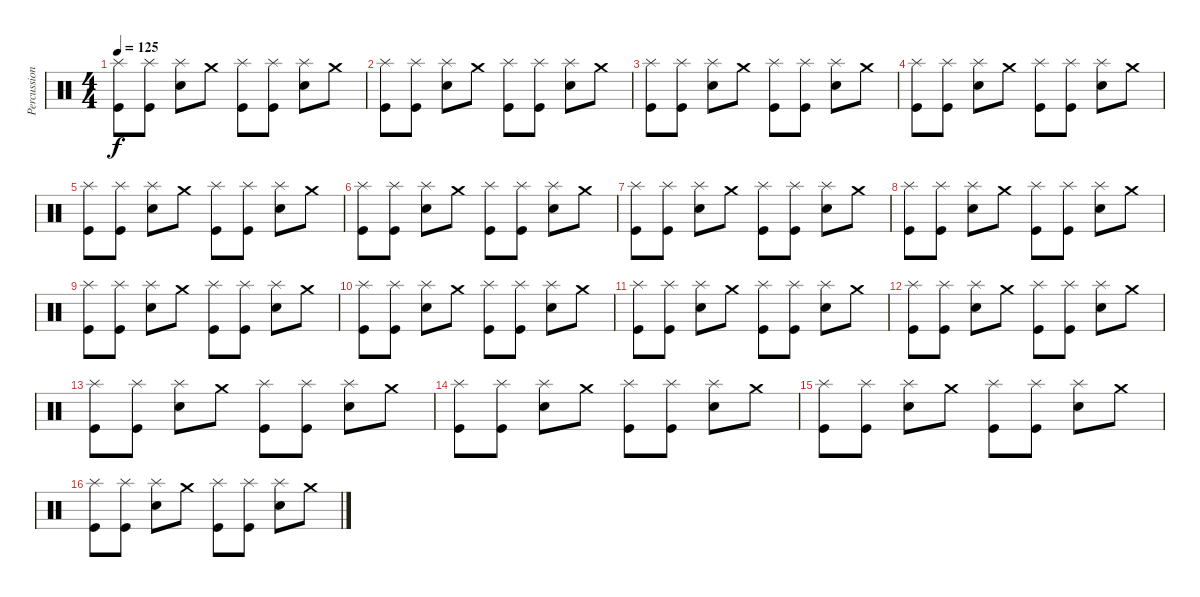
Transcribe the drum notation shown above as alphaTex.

\track ("Percussions" "Percussion") {instrument percussion}
\staff {score}
\articulation defaults
\ts (4 4)
\tempo 125
\clef neutral
\ks c
("Kick (hit)" "Splash (hit)").8{dy f} ("Kick (hit)" "Splash (hit)").8 ("Electric Snare (hit)" "Splash (hit)").8 "Crash medium (hit)".8 ("Kick (hit)" "Splash (hit)").8 ("Kick (hit)" "Splash (hit)").8 ("Electric Snare (hit)" "Splash (hit)").8 "Crash medium (hit)".8 |
("Kick (hit)" "Splash (hit)").8 ("Kick (hit)" "Splash (hit)").8 ("Electric Snare (hit)" "Splash (hit)").8 "Crash medium (hit)".8 ("Kick (hit)" "Splash (hit)").8 ("Kick (hit)" "Splash (hit)").8 ("Electric Snare (hit)" "Splash (hit)").8 "Crash medium (hit)".8 |
("Kick (hit)" "Splash (hit)").8 ("Kick (hit)" "Splash (hit)").8 ("Electric Snare (hit)" "Splash (hit)").8 "Crash medium (hit)".8 ("Kick (hit)" "Splash (hit)").8 ("Kick (hit)" "Splash (hit)").8 ("Electric Snare (hit)" "Splash (hit)").8 "Crash medium (hit)".8 |
("Kick (hit)" "Splash (hit)").8 ("Kick (hit)" "Splash (hit)").8 ("Electric Snare (hit)" "Splash (hit)").8 "Crash medium (hit)".8 ("Kick (hit)" "Splash (hit)").8 ("Kick (hit)" "Splash (hit)").8 ("Electric Snare (hit)" "Splash (hit)").8 "Crash medium (hit)".8 |
("Kick (hit)" "Splash (hit)").8 ("Kick (hit)" "Splash (hit)").8 ("Electric Snare (hit)" "Splash (hit)").8 "Crash medium (hit)".8 ("Kick (hit)" "Splash (hit)").8 ("Kick (hit)" "Splash (hit)").8 ("Electric Snare (hit)" "Splash (hit)").8 "Crash medium (hit)".8 |
("Kick (hit)" "Splash (hit)").8 ("Kick (hit)" "Splash (hit)").8 ("Electric Snare (hit)" "Splash (hit)").8 "Crash medium (hit)".8 ("Kick (hit)" "Splash (hit)").8 ("Kick (hit)" "Splash (hit)").8 ("Electric Snare (hit)" "Splash (hit)").8 "Crash medium (hit)".8 |
("Kick (hit)" "Splash (hit)").8 ("Kick (hit)" "Splash (hit)").8 ("Electric Snare (hit)" "Splash (hit)").8 "Crash medium (hit)".8 ("Kick (hit)" "Splash (hit)").8 ("Kick (hit)" "Splash (hit)").8 ("Electric Snare (hit)" "Splash (hit)").8 "Crash medium (hit)".8 |
("Kick (hit)" "Splash (hit)").8 ("Kick (hit)" "Splash (hit)").8 ("Electric Snare (hit)" "Splash (hit)").8 "Crash medium (hit)".8 ("Kick (hit)" "Splash (hit)").8 ("Kick (hit)" "Splash (hit)").8 ("Electric Snare (hit)" "Splash (hit)").8 "Crash medium (hit)".8 |
("Kick (hit)" "Splash (hit)").8 ("Kick (hit)" "Splash (hit)").8 ("Electric Snare (hit)" "Splash (hit)").8 "Crash medium (hit)".8 ("Kick (hit)" "Splash (hit)").8 ("Kick (hit)" "Splash (hit)").8 ("Electric Snare (hit)" "Splash (hit)").8 "Crash medium (hit)".8 |
("Kick (hit)" "Splash (hit)").8 ("Kick (hit)" "Splash (hit)").8 ("Electric Snare (hit)" "Splash (hit)").8 "Crash medium (hit)".8 ("Kick (hit)" "Splash (hit)").8 ("Kick (hit)" "Splash (hit)").8 ("Electric Snare (hit)" "Splash (hit)").8 "Crash medium (hit)".8 |
("Kick (hit)" "Splash (hit)").8 ("Kick (hit)" "Splash (hit)").8 ("Electric Snare (hit)" "Splash (hit)").8 "Crash medium (hit)".8 ("Kick (hit)" "Splash (hit)").8 ("Kick (hit)" "Splash (hit)").8 ("Electric Snare (hit)" "Splash (hit)").8 "Crash medium (hit)".8 |
("Kick (hit)" "Splash (hit)").8 ("Kick (hit)" "Splash (hit)").8 ("Electric Snare (hit)" "Splash (hit)").8 "Crash medium (hit)".8 ("Kick (hit)" "Splash (hit)").8 ("Kick (hit)" "Splash (hit)").8 ("Electric Snare (hit)" "Splash (hit)").8 "Crash medium (hit)".8 |
("Kick (hit)" "Splash (hit)").8 ("Kick (hit)" "Splash (hit)").8 ("Electric Snare (hit)" "Splash (hit)").8 "Crash medium (hit)".8 ("Kick (hit)" "Splash (hit)").8 ("Kick (hit)" "Splash (hit)").8 ("Electric Snare (hit)" "Splash (hit)").8 "Crash medium (hit)".8 |
("Kick (hit)" "Splash (hit)").8 ("Kick (hit)" "Splash (hit)").8 ("Electric Snare (hit)" "Splash (hit)").8 "Crash medium (hit)".8 ("Kick (hit)" "Splash (hit)").8 ("Kick (hit)" "Splash (hit)").8 ("Electric Snare (hit)" "Splash (hit)").8 "Crash medium (hit)".8 |
("Kick (hit)" "Splash (hit)").8 ("Kick (hit)" "Splash (hit)").8 ("Electric Snare (hit)" "Splash (hit)").8 "Crash medium (hit)".8 ("Kick (hit)" "Splash (hit)").8 ("Kick (hit)" "Splash (hit)").8 ("Electric Snare (hit)" "Splash (hit)").8 "Crash medium (hit)".8 |
("Kick (hit)" "Splash (hit)").8 ("Kick (hit)" "Splash (hit)").8 ("Electric Snare (hit)" "Splash (hit)").8 "Crash medium (hit)".8 ("Kick (hit)" "Splash (hit)").8 ("Kick (hit)" "Splash (hit)").8 ("Electric Snare (hit)" "Splash (hit)").8 "Crash medium (hit)".8
